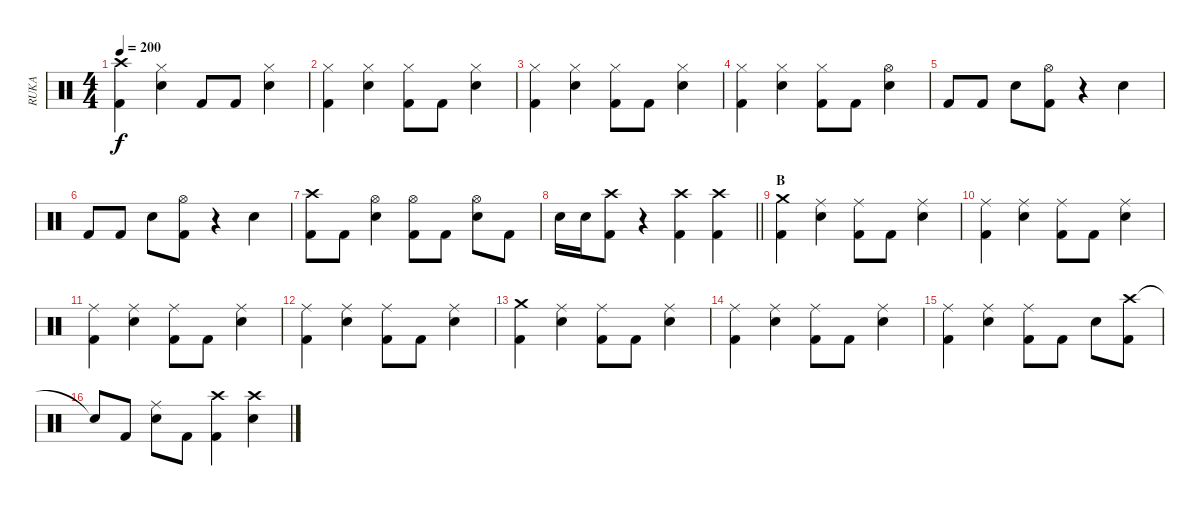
\track ("RUKA" "RUKA") {instrument percussion}
\staff {score}
\articulation defaults
\ts (4 4)
\tempo 200
\clef neutral
\ks c
("Crash high (hit)" "Kick (hit) 2").4{dy f} ("Hi-Hat (closed)" "Snare (hit) 2").4 "Kick (hit) 2".8 "Kick (hit) 2".8 ("Hi-Hat (closed)" "Snare (hit) 2").4 |
("Hi-Hat (closed)" "Kick (hit) 2").4 ("Hi-Hat (closed)" "Snare (hit) 2").4 ("Hi-Hat (closed)" "Kick (hit) 2").8 "Kick (hit) 2".8 ("Hi-Hat (closed)" "Snare (hit) 2").4 |
("Hi-Hat (closed)" "Kick (hit) 2").4 ("Hi-Hat (closed)" "Snare (hit) 2").4 ("Hi-Hat (closed)" "Kick (hit) 2").8 "Kick (hit) 2".8 ("Hi-Hat (closed)" "Snare (hit) 2").4 |
("Hi-Hat (closed)" "Kick (hit) 2").4 ("Hi-Hat (closed)" "Snare (hit) 2").4 ("Hi-Hat (closed)" "Kick (hit) 2").8 "Kick (hit) 2".8 ("Hi-Hat (open)" "Snare (hit) 2").4 |
"Kick (hit) 2".8 "Kick (hit) 2".8 "Snare (hit) 2".8 ("Hi-Hat (open)" "Kick (hit) 2").8 r.4 "Snare (hit) 2".4 |
"Kick (hit) 2".8 "Kick (hit) 2".8 "Snare (hit) 2".8 ("Hi-Hat (open)" "Kick (hit) 2").8 r.4 "Snare (hit) 2".4 |
("Crash high (hit)" "Kick (hit) 2").8 "Kick (hit) 2".8 ("Hi-Hat (open)" "Snare (hit) 2").4 ("Hi-Hat (open)" "Kick (hit) 2").8 "Kick (hit) 2".8 ("Hi-Hat (open)" "Snare (hit) 2").8 "Kick (hit) 2".8 |
\barLineRight lightlight "Snare (hit) 2".16 "Snare (hit) 2".16
("Crash high (hit)" "Kick (hit) 2").8 r.4 ("Crash high (hit)" "Kick (hit) 2").4 ("Crash high (hit)" "Kick (hit) 2").4 |
\section ("" "B")
("Crash medium (hit)" "Kick (hit) 2").4 ("Ride (middle)" "Snare (hit) 2").4 ("Ride (middle)" "Kick (hit) 2").8 "Kick (hit) 2".8 ("Ride (middle)" "Snare (hit) 2").4 |
("Ride (middle)" "Kick (hit) 2").4 ("Ride (middle)" "Snare (hit) 2").4 ("Ride (middle)" "Kick (hit) 2").8 "Kick (hit) 2".8 ("Ride (middle)" "Snare (hit) 2").4 |
("Ride (middle)" "Kick (hit) 2").4 ("Ride (middle)" "Snare (hit) 2").4 ("Ride (middle)" "Kick (hit) 2").8 "Kick (hit) 2".8 ("Ride (middle)" "Snare (hit) 2").4 |
("Ride (middle)" "Kick (hit) 2").4 ("Ride (middle)" "Snare (hit) 2").4 ("Ride (middle)" "Kick (hit) 2").8 "Kick (hit) 2".8 ("Ride (middle)" "Snare (hit) 2").4 |
("Crash medium (hit)" "Kick (hit) 2").4 ("Ride (middle)" "Snare (hit) 2").4 ("Ride (middle)" "Kick (hit) 2").8 "Kick (hit) 2".8 ("Ride (middle)" "Snare (hit) 2").4 |
("Ride (middle)" "Kick (hit) 2").4 ("Ride (middle)" "Snare (hit) 2").4 ("Ride (middle)" "Kick (hit) 2").8 "Kick (hit) 2".8 ("Ride (middle)" "Snare (hit) 2").4 |
("Ride (middle)" "Kick (hit) 2").4 ("Ride (middle)" "Snare (hit) 2").4 ("Ride (middle)" "Kick (hit) 2").8 "Kick (hit) 2".8 "Snare (hit) 2".8 ("Crash high (hit)" "Kick (hit) 2").8 |
"Snare (hit)"{t}.8 "Kick (hit) 2".8 ("Ride (middle)" "Snare (hit) 2").8 "Kick (hit) 2".8 ("Crash high (hit)" "Kick (hit) 2").4 ("Crash high (hit)" "Snare (hit) 2").4
